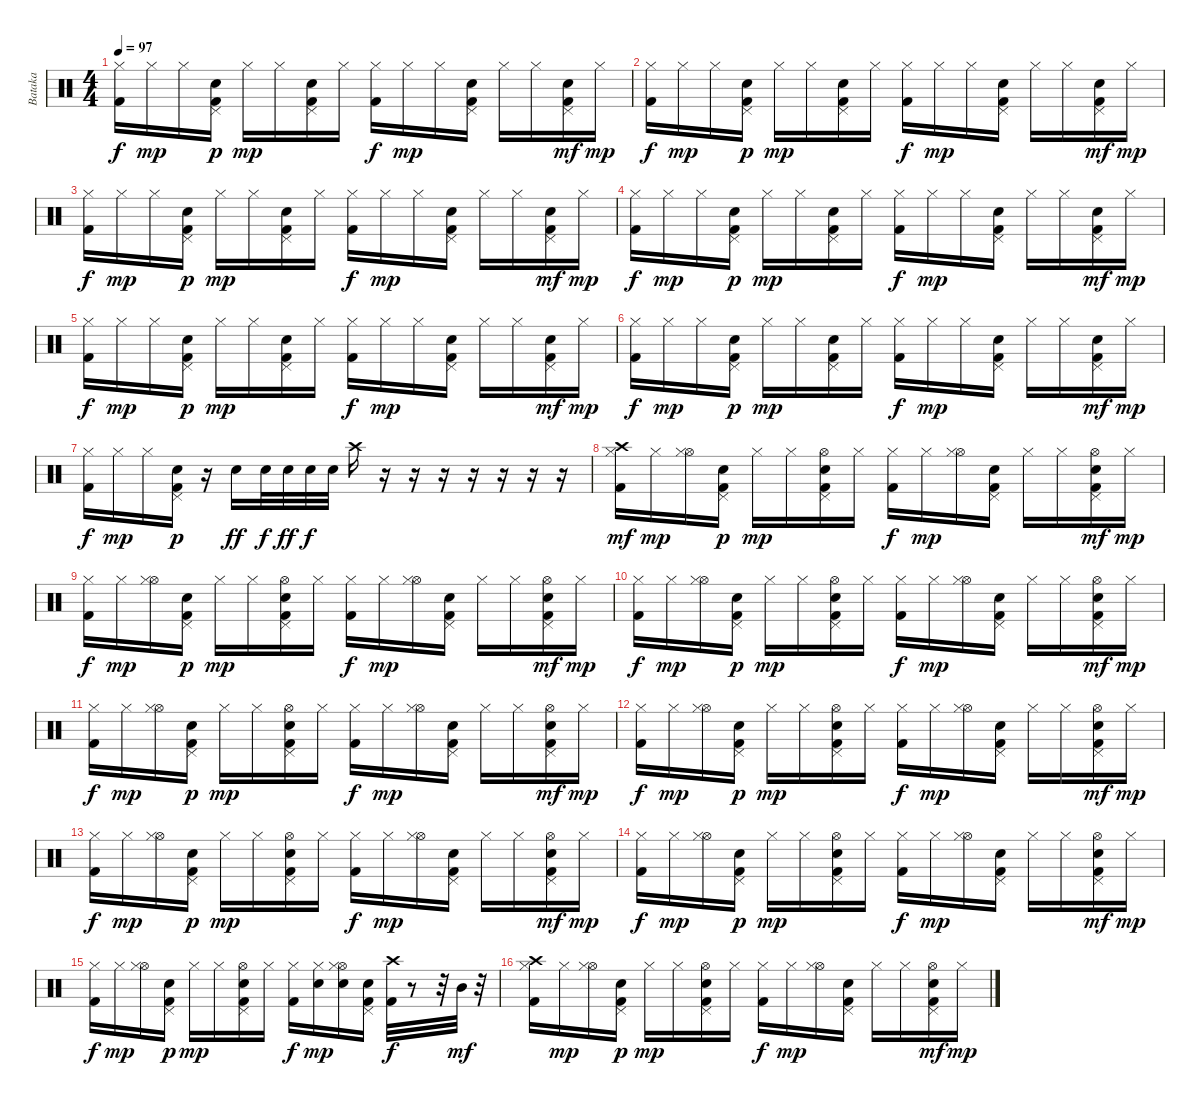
\track ("Bataka" "Bataka") {instrument percussion}
\staff {score}
\articulation defaults
\ts (4 4)
\tempo 97
\clef neutral
\ks c
("Kick (hit) 2" "Hi-Hat (closed)").16{dy f} "Hi-Hat (closed)".16{dy mp} "Hi-Hat (closed)".16 ("Pedal Hi-Hat (hit)" "Kick (hit) 2" "Electric Snare (hit)").16{dy p} "Hi-Hat (closed)".16{dy mp} "Hi-Hat (closed)".16 ("Kick (hit) 2" "Pedal Hi-Hat (hit)" "Electric Snare (hit)").16 "Hi-Hat (closed)".16 ("Kick (hit) 2" "Hi-Hat (closed)").16{dy f} "Hi-Hat (closed)".16{dy mp} "Hi-Hat (closed)".16 ("Electric Snare (hit)" "Pedal Hi-Hat (hit)" "Kick (hit) 2").16 "Hi-Hat (closed)".16 "Hi-Hat (closed)".16 ("Electric Snare (hit)" "Pedal Hi-Hat (hit)" "Kick (hit) 2").16{dy mf} "Hi-Hat (closed)".16{dy mp} |
("Kick (hit) 2" "Hi-Hat (closed)").16{dy f} "Hi-Hat (closed)".16{dy mp} "Hi-Hat (closed)".16 ("Pedal Hi-Hat (hit)" "Kick (hit) 2" "Electric Snare (hit)").16{dy p} "Hi-Hat (closed)".16{dy mp} "Hi-Hat (closed)".16 ("Kick (hit) 2" "Pedal Hi-Hat (hit)" "Electric Snare (hit)").16 "Hi-Hat (closed)".16 ("Kick (hit) 2" "Hi-Hat (closed)").16{dy f} "Hi-Hat (closed)".16{dy mp} "Hi-Hat (closed)".16 ("Electric Snare (hit)" "Pedal Hi-Hat (hit)" "Kick (hit) 2").16 "Hi-Hat (closed)".16 "Hi-Hat (closed)".16 ("Electric Snare (hit)" "Pedal Hi-Hat (hit)" "Kick (hit) 2").16{dy mf} "Hi-Hat (closed)".16{dy mp} |
("Kick (hit) 2" "Hi-Hat (closed)").16{dy f} "Hi-Hat (closed)".16{dy mp} "Hi-Hat (closed)".16 ("Pedal Hi-Hat (hit)" "Kick (hit) 2" "Electric Snare (hit)").16{dy p} "Hi-Hat (closed)".16{dy mp} "Hi-Hat (closed)".16 ("Kick (hit) 2" "Pedal Hi-Hat (hit)" "Electric Snare (hit)").16 "Hi-Hat (closed)".16 ("Kick (hit) 2" "Hi-Hat (closed)").16{dy f} "Hi-Hat (closed)".16{dy mp} "Hi-Hat (closed)".16 ("Electric Snare (hit)" "Pedal Hi-Hat (hit)" "Kick (hit) 2").16 "Hi-Hat (closed)".16 "Hi-Hat (closed)".16 ("Electric Snare (hit)" "Pedal Hi-Hat (hit)" "Kick (hit) 2").16{dy mf} "Hi-Hat (closed)".16{dy mp} |
("Kick (hit) 2" "Hi-Hat (closed)").16{dy f} "Hi-Hat (closed)".16{dy mp} "Hi-Hat (closed)".16 ("Pedal Hi-Hat (hit)" "Kick (hit) 2" "Electric Snare (hit)").16{dy p} "Hi-Hat (closed)".16{dy mp} "Hi-Hat (closed)".16 ("Kick (hit) 2" "Pedal Hi-Hat (hit)" "Electric Snare (hit)").16 "Hi-Hat (closed)".16 ("Kick (hit) 2" "Hi-Hat (closed)").16{dy f} "Hi-Hat (closed)".16{dy mp} "Hi-Hat (closed)".16 ("Electric Snare (hit)" "Pedal Hi-Hat (hit)" "Kick (hit) 2").16 "Hi-Hat (closed)".16 "Hi-Hat (closed)".16 ("Electric Snare (hit)" "Pedal Hi-Hat (hit)" "Kick (hit) 2").16{dy mf} "Hi-Hat (closed)".16{dy mp} |
("Kick (hit) 2" "Hi-Hat (closed)").16{dy f} "Hi-Hat (closed)".16{dy mp} "Hi-Hat (closed)".16 ("Pedal Hi-Hat (hit)" "Kick (hit) 2" "Electric Snare (hit)").16{dy p} "Hi-Hat (closed)".16{dy mp} "Hi-Hat (closed)".16 ("Kick (hit) 2" "Pedal Hi-Hat (hit)" "Electric Snare (hit)").16 "Hi-Hat (closed)".16 ("Kick (hit) 2" "Hi-Hat (closed)").16{dy f} "Hi-Hat (closed)".16{dy mp} "Hi-Hat (closed)".16 ("Electric Snare (hit)" "Pedal Hi-Hat (hit)" "Kick (hit) 2").16 "Hi-Hat (closed)".16 "Hi-Hat (closed)".16 ("Electric Snare (hit)" "Pedal Hi-Hat (hit)" "Kick (hit) 2").16{dy mf} "Hi-Hat (closed)".16{dy mp} |
("Kick (hit) 2" "Hi-Hat (closed)").16{dy f} "Hi-Hat (closed)".16{dy mp} "Hi-Hat (closed)".16 ("Pedal Hi-Hat (hit)" "Kick (hit) 2" "Electric Snare (hit)").16{dy p} "Hi-Hat (closed)".16{dy mp} "Hi-Hat (closed)".16 ("Kick (hit) 2" "Pedal Hi-Hat (hit)" "Electric Snare (hit)").16 "Hi-Hat (closed)".16 ("Kick (hit) 2" "Hi-Hat (closed)").16{dy f} "Hi-Hat (closed)".16{dy mp} "Hi-Hat (closed)".16 ("Electric Snare (hit)" "Pedal Hi-Hat (hit)" "Kick (hit) 2").16 "Hi-Hat (closed)".16 "Hi-Hat (closed)".16 ("Electric Snare (hit)" "Pedal Hi-Hat (hit)" "Kick (hit) 2").16{dy mf} "Hi-Hat (closed)".16{dy mp} |
("Kick (hit) 2" "Hi-Hat (closed)").16{dy f} "Hi-Hat (closed)".16{dy mp} "Hi-Hat (closed)".16 ("Pedal Hi-Hat (hit)" "Kick (hit) 2" "Electric Snare (hit)").16{dy p} r.16 "Electric Snare (hit)".16{dy ff} "Electric Snare (hit)".32{dy f} "Electric Snare (hit)".32{dy ff} "Electric Snare (hit)".32{dy f} "Electric Snare (hit)".32 "Crash high (hit)".16 r.16 r.16 r.16 r.16 r.16 r.16 r.16 |
("Crash high (hit)" "Kick (hit) 2" "Hi-Hat (closed)").16{dy mf} "Hi-Hat (closed)".16{dy mp} ("Hi-Hat (open)" "Hi-Hat (closed)").16 ("Pedal Hi-Hat (hit)" "Kick (hit) 2" "Electric Snare (hit)").16{dy p} "Hi-Hat (closed)".16{dy mp} "Hi-Hat (closed)".16 ("Hi-Hat (open)" "Kick (hit) 2" "Pedal Hi-Hat (hit)" "Electric Snare (hit)").16 "Hi-Hat (closed)".16 ("Kick (hit) 2" "Hi-Hat (closed)").16{dy f} "Hi-Hat (closed)".16{dy mp} ("Hi-Hat (open)" "Hi-Hat (closed)").16 ("Electric Snare (hit)" "Pedal Hi-Hat (hit)" "Kick (hit) 2").16 "Hi-Hat (closed)".16 "Hi-Hat (closed)".16 ("Hi-Hat (open)" "Electric Snare (hit)" "Pedal Hi-Hat (hit)" "Kick (hit) 2").16{dy mf} "Hi-Hat (closed)".16{dy mp} |
("Kick (hit) 2" "Hi-Hat (closed)").16{dy f} "Hi-Hat (closed)".16{dy mp} ("Hi-Hat (open)" "Hi-Hat (closed)").16 ("Pedal Hi-Hat (hit)" "Kick (hit) 2" "Electric Snare (hit)").16{dy p} "Hi-Hat (closed)".16{dy mp} "Hi-Hat (closed)".16 ("Hi-Hat (open)" "Kick (hit) 2" "Pedal Hi-Hat (hit)" "Electric Snare (hit)").16 "Hi-Hat (closed)".16 ("Kick (hit) 2" "Hi-Hat (closed)").16{dy f} "Hi-Hat (closed)".16{dy mp} ("Hi-Hat (open)" "Hi-Hat (closed)").16 ("Electric Snare (hit)" "Pedal Hi-Hat (hit)" "Kick (hit) 2").16 "Hi-Hat (closed)".16 "Hi-Hat (closed)".16 ("Hi-Hat (open)" "Electric Snare (hit)" "Pedal Hi-Hat (hit)" "Kick (hit) 2").16{dy mf} "Hi-Hat (closed)".16{dy mp} |
("Kick (hit) 2" "Hi-Hat (closed)").16{dy f} "Hi-Hat (closed)".16{dy mp} ("Hi-Hat (open)" "Hi-Hat (closed)").16 ("Pedal Hi-Hat (hit)" "Kick (hit) 2" "Electric Snare (hit)").16{dy p} "Hi-Hat (closed)".16{dy mp} "Hi-Hat (closed)".16 ("Hi-Hat (open)" "Kick (hit) 2" "Pedal Hi-Hat (hit)" "Electric Snare (hit)").16 "Hi-Hat (closed)".16 ("Kick (hit) 2" "Hi-Hat (closed)").16{dy f} "Hi-Hat (closed)".16{dy mp} ("Hi-Hat (open)" "Hi-Hat (closed)").16 ("Electric Snare (hit)" "Pedal Hi-Hat (hit)" "Kick (hit) 2").16 "Hi-Hat (closed)".16 "Hi-Hat (closed)".16 ("Hi-Hat (open)" "Electric Snare (hit)" "Pedal Hi-Hat (hit)" "Kick (hit) 2").16{dy mf} "Hi-Hat (closed)".16{dy mp} |
("Kick (hit) 2" "Hi-Hat (closed)").16{dy f} "Hi-Hat (closed)".16{dy mp} ("Hi-Hat (open)" "Hi-Hat (closed)").16 ("Pedal Hi-Hat (hit)" "Kick (hit) 2" "Electric Snare (hit)").16{dy p} "Hi-Hat (closed)".16{dy mp} "Hi-Hat (closed)".16 ("Hi-Hat (open)" "Kick (hit) 2" "Pedal Hi-Hat (hit)" "Electric Snare (hit)").16 "Hi-Hat (closed)".16 ("Kick (hit) 2" "Hi-Hat (closed)").16{dy f} "Hi-Hat (closed)".16{dy mp} ("Hi-Hat (open)" "Hi-Hat (closed)").16 ("Electric Snare (hit)" "Pedal Hi-Hat (hit)" "Kick (hit) 2").16 "Hi-Hat (closed)".16 "Hi-Hat (closed)".16 ("Hi-Hat (open)" "Electric Snare (hit)" "Pedal Hi-Hat (hit)" "Kick (hit) 2").16{dy mf} "Hi-Hat (closed)".16{dy mp} |
("Kick (hit) 2" "Hi-Hat (closed)").16{dy f} "Hi-Hat (closed)".16{dy mp} ("Hi-Hat (open)" "Hi-Hat (closed)").16 ("Pedal Hi-Hat (hit)" "Kick (hit) 2" "Electric Snare (hit)").16{dy p} "Hi-Hat (closed)".16{dy mp} "Hi-Hat (closed)".16 ("Hi-Hat (open)" "Kick (hit) 2" "Pedal Hi-Hat (hit)" "Electric Snare (hit)").16 "Hi-Hat (closed)".16 ("Kick (hit) 2" "Hi-Hat (closed)").16{dy f} "Hi-Hat (closed)".16{dy mp} ("Hi-Hat (open)" "Hi-Hat (closed)").16 ("Electric Snare (hit)" "Pedal Hi-Hat (hit)" "Kick (hit) 2").16 "Hi-Hat (closed)".16 "Hi-Hat (closed)".16 ("Hi-Hat (open)" "Electric Snare (hit)" "Pedal Hi-Hat (hit)" "Kick (hit) 2").16{dy mf} "Hi-Hat (closed)".16{dy mp} |
("Kick (hit) 2" "Hi-Hat (closed)").16{dy f} "Hi-Hat (closed)".16{dy mp} ("Hi-Hat (open)" "Hi-Hat (closed)").16 ("Pedal Hi-Hat (hit)" "Kick (hit) 2" "Electric Snare (hit)").16{dy p} "Hi-Hat (closed)".16{dy mp} "Hi-Hat (closed)".16 ("Hi-Hat (open)" "Kick (hit) 2" "Pedal Hi-Hat (hit)" "Electric Snare (hit)").16 "Hi-Hat (closed)".16 ("Kick (hit) 2" "Hi-Hat (closed)").16{dy f} "Hi-Hat (closed)".16{dy mp} ("Hi-Hat (open)" "Hi-Hat (closed)").16 ("Electric Snare (hit)" "Pedal Hi-Hat (hit)" "Kick (hit) 2").16 "Hi-Hat (closed)".16 "Hi-Hat (closed)".16 ("Hi-Hat (open)" "Electric Snare (hit)" "Pedal Hi-Hat (hit)" "Kick (hit) 2").16{dy mf} "Hi-Hat (closed)".16{dy mp} |
("Kick (hit) 2" "Hi-Hat (closed)").16{dy f} "Hi-Hat (closed)".16{dy mp} ("Hi-Hat (open)" "Hi-Hat (closed)").16 ("Pedal Hi-Hat (hit)" "Kick (hit) 2" "Electric Snare (hit)").16{dy p} "Hi-Hat (closed)".16{dy mp} "Hi-Hat (closed)".16 ("Hi-Hat (open)" "Kick (hit) 2" "Pedal Hi-Hat (hit)" "Electric Snare (hit)").16 "Hi-Hat (closed)".16 ("Kick (hit) 2" "Hi-Hat (closed)").16{dy f} "Hi-Hat (closed)".16{dy mp} ("Hi-Hat (open)" "Hi-Hat (closed)").16 ("Electric Snare (hit)" "Pedal Hi-Hat (hit)" "Kick (hit) 2").16 "Hi-Hat (closed)".16 "Hi-Hat (closed)".16 ("Hi-Hat (open)" "Electric Snare (hit)" "Pedal Hi-Hat (hit)" "Kick (hit) 2").16{dy mf} "Hi-Hat (closed)".16{dy mp} |
("Kick (hit) 2" "Hi-Hat (closed)").16{dy f} "Hi-Hat (closed)".16{dy mp} ("Hi-Hat (open)" "Hi-Hat (closed)").16 ("Pedal Hi-Hat (hit)" "Kick (hit) 2" "Electric Snare (hit)").16{dy p} "Hi-Hat (closed)".16{dy mp} "Hi-Hat (closed)".16 ("Hi-Hat (open)" "Kick (hit) 2" "Pedal Hi-Hat (hit)" "Electric Snare (hit)").16 "Hi-Hat (closed)".16 ("Kick (hit) 2" "Hi-Hat (closed)").16{dy f} ("Electric Snare (hit)" "Hi-Hat (closed)").16{dy mp} ("Electric Snare (hit)" "Hi-Hat (open)" "Hi-Hat (closed)").16 ("Electric Snare (hit)" "Pedal Hi-Hat (hit)" "Kick (hit) 2").16 ("Crash high (hit)" "Kick (hit) 2").32{dy f} r.8 r.32 "Mid Tom (hit)".32{dy mf} r.32 |
("Crash high (hit)" "Kick (hit) 2" "Hi-Hat (closed)").16 "Hi-Hat (closed)".16{dy mp} ("Hi-Hat (open)" "Hi-Hat (closed)").16 ("Pedal Hi-Hat (hit)" "Kick (hit) 2" "Electric Snare (hit)").16{dy p} "Hi-Hat (closed)".16{dy mp} "Hi-Hat (closed)".16 ("Hi-Hat (open)" "Kick (hit) 2" "Pedal Hi-Hat (hit)" "Electric Snare (hit)").16 "Hi-Hat (closed)".16 ("Kick (hit) 2" "Hi-Hat (closed)").16{dy f} "Hi-Hat (closed)".16{dy mp} ("Hi-Hat (open)" "Hi-Hat (closed)").16 ("Electric Snare (hit)" "Pedal Hi-Hat (hit)" "Kick (hit) 2").16 "Hi-Hat (closed)".16 "Hi-Hat (closed)".16 ("Hi-Hat (open)" "Electric Snare (hit)" "Pedal Hi-Hat (hit)" "Kick (hit) 2").16{dy mf} "Hi-Hat (closed)".16{dy mp}
